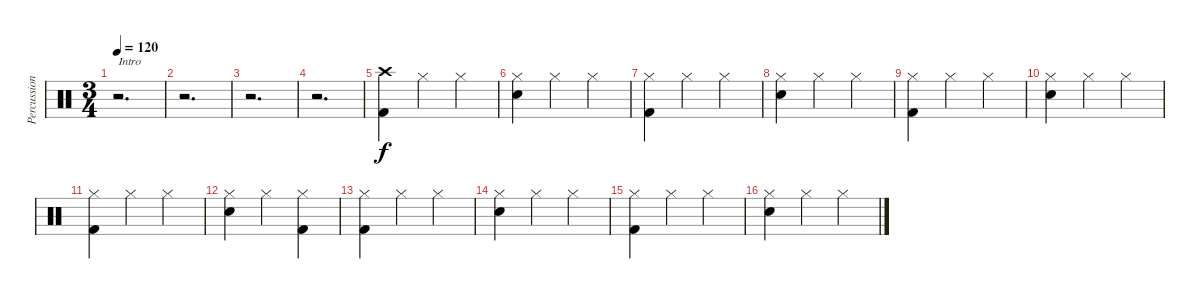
\track ("Percussion" "Percussion") {instrument percussion}
\staff {score}
\articulation defaults
\ts (3 4)
\tempo 120
\clef neutral
\ks c
r.2{d txt "Intro" dy f} |
r.2{d} |
r.2{d} |
r.2{d} |
("Kick (hit) 2" "Crash high (hit)").4 "Hi-Hat (closed)".4 "Hi-Hat (closed)".4 |
("Snare (hit) 2" "Hi-Hat (closed)").4 "Hi-Hat (closed)".4 "Hi-Hat (closed)".4 |
("Kick (hit) 2" "Hi-Hat (closed)").4 "Hi-Hat (closed)".4 "Hi-Hat (closed)".4 |
("Snare (hit) 2" "Hi-Hat (closed)").4 "Hi-Hat (closed)".4 "Hi-Hat (closed)".4 |
("Kick (hit) 2" "Hi-Hat (closed)").4 "Hi-Hat (closed)".4 "Hi-Hat (closed)".4 |
("Snare (hit) 2" "Hi-Hat (closed)").4 "Hi-Hat (closed)".4 "Hi-Hat (closed)".4 |
("Kick (hit) 2" "Hi-Hat (closed)").4 "Hi-Hat (closed)".4 "Hi-Hat (closed)".4 |
("Snare (hit) 2" "Hi-Hat (closed)").4 "Hi-Hat (closed)".4 ("Kick (hit) 2" "Hi-Hat (closed)").4 |
("Kick (hit) 2" "Hi-Hat (closed)").4 "Hi-Hat (closed)".4 "Hi-Hat (closed)".4 |
("Snare (hit) 2" "Hi-Hat (closed)").4 "Hi-Hat (closed)".4 "Hi-Hat (closed)".4 |
("Kick (hit) 2" "Hi-Hat (closed)").4 "Hi-Hat (closed)".4 "Hi-Hat (closed)".4 |
("Snare (hit) 2" "Hi-Hat (closed)").4 "Hi-Hat (closed)".4 "Hi-Hat (closed)".4
